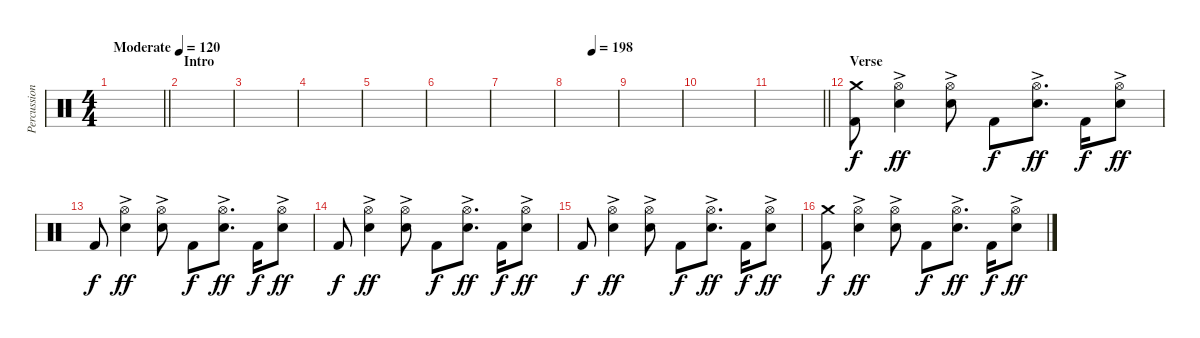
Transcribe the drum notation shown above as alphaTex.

\track ("Percussion" "Percussion") {instrument percussion}
\staff {score}
\articulation defaults
\ts (4 4)
\tempo (120 "Moderate")
\clef neutral
\barLineRight lightlight
\ks c
|
\section ("" "Intro")
|
|
|
|
|
|
\tempo (198 0.5)
|
|
|
\barLineRight lightlight
|
\section ("" "Verse")
("Crash medium (hit)" "Kick (hit) 2").8 ("Hi-Hat (open)" "Electric Snare (hit)"{ac}).4{dy ff} ("Hi-Hat (open)" "Electric Snare (hit)"{ac}).8 "Kick (hit) 2".8{dy f} ("Hi-Hat (open)" "Electric Snare (hit)"{ac}).8{d dy ff} "Kick (hit) 2".16{dy f} ("Hi-Hat (open)" "Electric Snare (hit)"{ac}).8{dy ff} |
"Kick (hit) 2".8{dy f} ("Hi-Hat (open)" "Electric Snare (hit)"{ac}).4{dy ff} ("Hi-Hat (open)" "Electric Snare (hit)"{ac}).8 "Kick (hit) 2".8{dy f} ("Hi-Hat (open)" "Electric Snare (hit)"{ac}).8{d dy ff} "Kick (hit) 2".16{dy f} ("Hi-Hat (open)" "Electric Snare (hit)"{ac}).8{dy ff} |
"Kick (hit) 2".8{dy f} ("Hi-Hat (open)" "Electric Snare (hit)"{ac}).4{dy ff} ("Hi-Hat (open)" "Electric Snare (hit)"{ac}).8 "Kick (hit) 2".8{dy f} ("Hi-Hat (open)" "Electric Snare (hit)"{ac}).8{d dy ff} "Kick (hit) 2".16{dy f} ("Hi-Hat (open)" "Electric Snare (hit)"{ac}).8{dy ff} |
"Kick (hit) 2".8{dy f} ("Hi-Hat (open)" "Electric Snare (hit)"{ac}).4{dy ff} ("Hi-Hat (open)" "Electric Snare (hit)"{ac}).8 "Kick (hit) 2".8{dy f} ("Hi-Hat (open)" "Electric Snare (hit)"{ac}).8{d dy ff} "Kick (hit) 2".16{dy f} ("Hi-Hat (open)" "Electric Snare (hit)"{ac}).8{dy ff} |
("Crash medium (hit)" "Kick (hit) 2").8{dy f} ("Hi-Hat (open)" "Electric Snare (hit)"{ac}).4{dy ff} ("Hi-Hat (open)" "Electric Snare (hit)"{ac}).8 "Kick (hit) 2".8{dy f} ("Hi-Hat (open)" "Electric Snare (hit)"{ac}).8{d dy ff} "Kick (hit) 2".16{dy f} ("Hi-Hat (open)" "Electric Snare (hit)"{ac}).8{dy ff}
